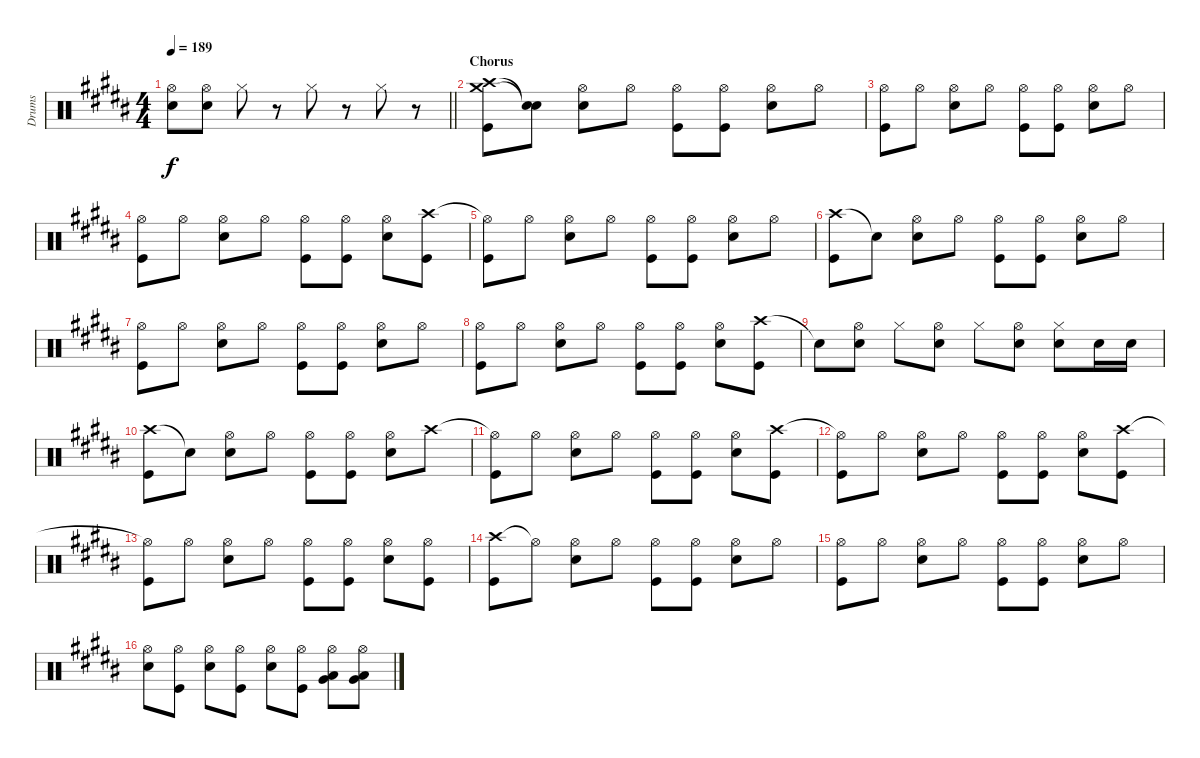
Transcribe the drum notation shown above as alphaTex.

\track ("Drums" "Drums") {instrument percussion}
\staff {score}
\articulation defaults
\ts (4 4)
\tempo 189
\clef neutral
\barLineRight lightlight
\ks b
("Hi-Hat (open)" "Snare (hit) 2").8{dy f} ("Hi-Hat (open)" "Snare (hit) 2").8 "Hi-Hat (closed)".8 r.8 "Hi-Hat (closed)".8 r.8 "Hi-Hat (closed)".8 r.8 |
\section ("" "Chorus")
("Crash high (hit)" "Crash medium (hit)" "Kick (hit)").8 ("Snare (hit)"{t} "Snare (hit)"{t}).8 ("Hi-Hat (open)" "Snare (hit) 2").8 "Hi-Hat (open)".8 ("Hi-Hat (open)" "Kick (hit)").8 ("Hi-Hat (open)" "Kick (hit)").8 ("Hi-Hat (open)" "Snare (hit) 2").8 "Hi-Hat (open)".8 |
("Hi-Hat (open)" "Kick (hit)").8 "Hi-Hat (open)".8 ("Hi-Hat (open)" "Snare (hit) 2").8 "Hi-Hat (open)".8 ("Hi-Hat (open)" "Kick (hit)").8 ("Hi-Hat (open)" "Kick (hit)").8 ("Hi-Hat (open)" "Snare (hit) 2").8 "Hi-Hat (open)".8 |
("Hi-Hat (open)" "Kick (hit)").8 "Hi-Hat (open)".8 ("Hi-Hat (open)" "Snare (hit) 2").8 "Hi-Hat (open)".8 ("Hi-Hat (open)" "Kick (hit)").8 ("Hi-Hat (open)" "Kick (hit)").8 ("Hi-Hat (open)" "Snare (hit) 2").8 ("Crash high (hit)" "Kick (hit)").8 |
("Hi-Hat (open)"{t} "Kick (hit)").8 "Hi-Hat (open)".8 ("Hi-Hat (open)" "Snare (hit) 2").8 "Hi-Hat (open)".8 ("Hi-Hat (open)" "Kick (hit)").8 ("Hi-Hat (open)" "Kick (hit)").8 ("Hi-Hat (open)" "Snare (hit) 2").8 "Hi-Hat (open)".8 |
("Crash high (hit)" "Kick (hit)").8 "Snare (hit)"{t}.8 ("Hi-Hat (open)" "Snare (hit) 2").8 "Hi-Hat (open)".8 ("Hi-Hat (open)" "Kick (hit)").8 ("Hi-Hat (open)" "Kick (hit)").8 ("Hi-Hat (open)" "Snare (hit) 2").8 "Hi-Hat (open)".8 |
("Hi-Hat (open)" "Kick (hit)").8 "Hi-Hat (open)".8 ("Hi-Hat (open)" "Snare (hit) 2").8 "Hi-Hat (open)".8 ("Hi-Hat (open)" "Kick (hit)").8 ("Hi-Hat (open)" "Kick (hit)").8 ("Hi-Hat (open)" "Snare (hit) 2").8 "Hi-Hat (open)".8 |
("Hi-Hat (open)" "Kick (hit)").8 "Hi-Hat (open)".8 ("Hi-Hat (open)" "Snare (hit) 2").8 "Hi-Hat (open)".8 ("Hi-Hat (open)" "Kick (hit)").8 ("Hi-Hat (open)" "Kick (hit)").8 ("Hi-Hat (open)" "Snare (hit) 2").8 ("Crash high (hit)" "Kick (hit)").8 |
"Snare (hit)"{t}.8 ("Hi-Hat (open)" "Snare (hit) 2").8 "Hi-Hat (closed)".8 ("Hi-Hat (open)" "Snare (hit) 2").8 "Hi-Hat (closed)".8 ("Hi-Hat (open)" "Snare (hit) 2").8 ("Hi-Hat (closed)" "Snare (hit) 2").8 "Snare (hit) 2".16 "Snare (hit) 2".16 |
("Crash high (hit)" "Kick (hit)").8 "Snare (hit)"{t}.8 ("Hi-Hat (open)" "Snare (hit) 2").8 "Hi-Hat (open)".8 ("Hi-Hat (open)" "Kick (hit)").8 ("Hi-Hat (open)" "Kick (hit)").8 ("Hi-Hat (open)" "Snare (hit) 2").8 "Crash high (hit)".8 |
("Hi-Hat (open)"{t} "Kick (hit)").8 "Hi-Hat (open)".8 ("Hi-Hat (open)" "Snare (hit) 2").8 "Hi-Hat (open)".8 ("Hi-Hat (open)" "Kick (hit)").8 ("Hi-Hat (open)" "Kick (hit)").8 ("Hi-Hat (open)" "Snare (hit) 2").8 ("Crash high (hit)" "Kick (hit)").8 |
("Hi-Hat (open)"{t} "Kick (hit)").8 "Hi-Hat (open)".8 ("Hi-Hat (open)" "Snare (hit) 2").8 "Hi-Hat (open)".8 ("Hi-Hat (open)" "Kick (hit)").8 ("Hi-Hat (open)" "Kick (hit)").8 ("Hi-Hat (open)" "Snare (hit) 2").8 ("Crash high (hit)" "Kick (hit)").8 |
("Hi-Hat (open)"{t} "Kick (hit)").8 "Hi-Hat (open)".8 ("Hi-Hat (open)" "Snare (hit) 2").8 "Hi-Hat (open)".8 ("Hi-Hat (open)" "Kick (hit)").8 ("Hi-Hat (open)" "Kick (hit)").8 ("Hi-Hat (open)" "Snare (hit) 2").8 ("Hi-Hat (open)" "Kick (hit)").8 |
("Crash high (hit)" "Kick (hit)").8 "Hi-Hat (open)"{t}.8 ("Hi-Hat (open)" "Snare (hit) 2").8 "Hi-Hat (open)".8 ("Hi-Hat (open)" "Kick (hit)").8 ("Hi-Hat (open)" "Kick (hit)").8 ("Hi-Hat (open)" "Snare (hit) 2").8 "Hi-Hat (open)".8 |
("Hi-Hat (open)" "Kick (hit)").8 "Hi-Hat (open)".8 ("Hi-Hat (open)" "Snare (hit) 2").8 "Hi-Hat (open)".8 ("Hi-Hat (open)" "Kick (hit)").8 ("Hi-Hat (open)" "Kick (hit)").8 ("Hi-Hat (open)" "Snare (hit) 2").8 "Hi-Hat (open)".8 |
("Hi-Hat (open)" "Snare (hit) 2").8 ("Hi-Hat (open)" "Kick (hit)").8 ("Hi-Hat (open)" "Snare (hit) 2").8 ("Hi-Hat (open)" "Kick (hit)").8 ("Hi-Hat (open)" "Snare (hit) 2").8 ("Hi-Hat (open)" "Kick (hit)").8 ("Hi-Hat (open)" "Low Tom (hit)" "Very Low Tom (hit)").8 ("Hi-Hat (open)" "Low Tom (hit)" "Very Low Tom (hit)").8
